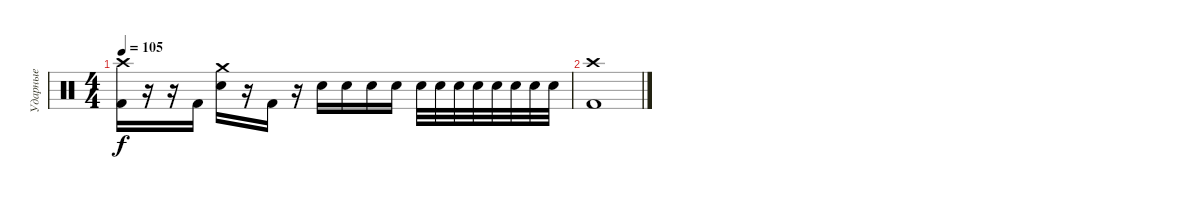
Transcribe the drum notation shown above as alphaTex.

\track ("Ударные" "Ударные") {instrument percussion}
\staff {score}
\articulation defaults
\ts (4 4)
\tempo 105
\clef neutral
\ks c
("Crash high (hit)" "Kick (hit) 2").16{dy f} r.16 r.16 "Kick (hit) 2".16 ("Crash medium (hit)" "Electric Snare (hit)").16 r.16 "Kick (hit) 2".16 r.16 "Electric Snare (hit)".16 "Electric Snare (hit)".16 "Electric Snare (hit)".16 "Electric Snare (hit)".16 "Electric Snare (hit)".32 "Electric Snare (hit)".32 "Electric Snare (hit)".32 "Electric Snare (hit)".32 "Electric Snare (hit)".32 "Electric Snare (hit)".32 "Electric Snare (hit)".32 "Electric Snare (hit)".32 |
("Crash high (hit)" "Kick (hit) 2").1
